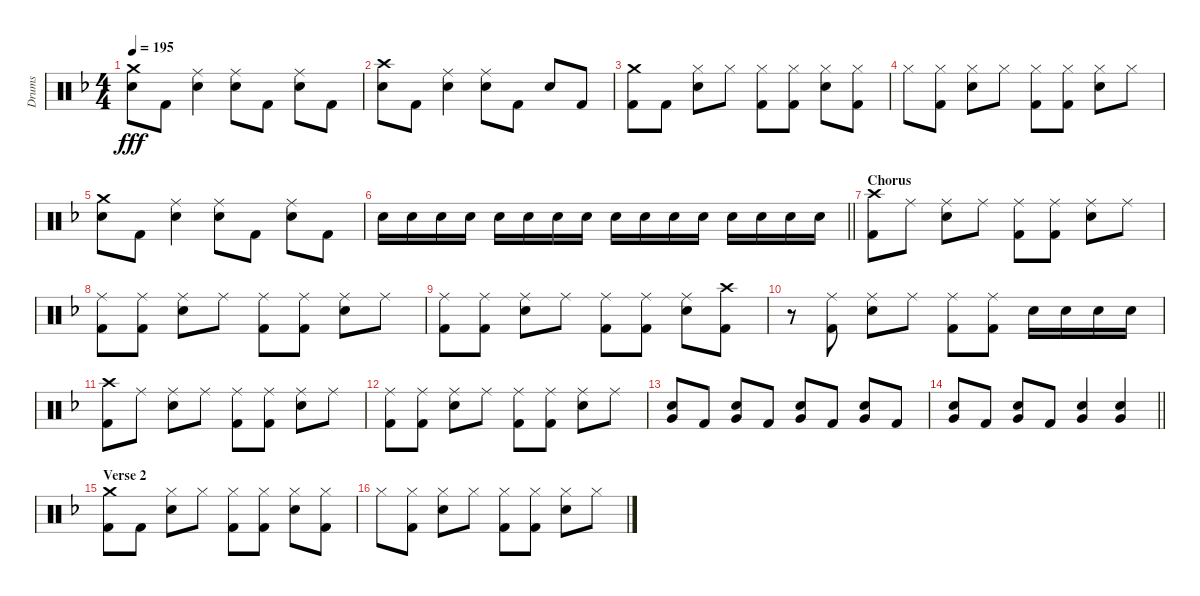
\track ("Drums" "Drums") {instrument percussion}
\staff {score}
\articulation defaults
\ts (4 4)
\tempo 195
\clef neutral
\ks f
("Crash medium (hit)" "Electric Snare (hit)").8{dy fff} "Kick (hit) 2".8 ("Ride (middle)" "Electric Snare (hit)").4 ("Ride (middle)" "Electric Snare (hit)").8 "Kick (hit) 2".8 ("Ride (middle)" "Electric Snare (hit)").8 "Kick (hit) 2".8 |
("Crash high (hit)" "Electric Snare (hit)").8 "Kick (hit) 2".8 ("Ride (middle)" "Electric Snare (hit)").4 ("Ride (middle)" "Electric Snare (hit)").8 "Kick (hit) 2".8 "Electric Snare (hit)".8 "Kick (hit) 2".8 |
("Crash medium (hit)" "Kick (hit) 2").8 "Kick (hit) 2".8 ("Hi-Hat (closed)" "Electric Snare (hit)").8 "Hi-Hat (closed)".8 ("Hi-Hat (closed)" "Kick (hit) 2").8 ("Hi-Hat (closed)" "Kick (hit) 2").8 ("Hi-Hat (closed)" "Electric Snare (hit)").8 ("Hi-Hat (closed)" "Kick (hit) 2").8 |
"Hi-Hat (closed)".8 ("Hi-Hat (closed)" "Kick (hit) 2").8 ("Hi-Hat (closed)" "Electric Snare (hit)").8 "Hi-Hat (closed)".8 ("Hi-Hat (closed)" "Kick (hit) 2").8 ("Hi-Hat (closed)" "Kick (hit) 2").8 ("Hi-Hat (closed)" "Electric Snare (hit)").8 "Hi-Hat (closed)".8 |
("Crash medium (hit)" "Electric Snare (hit)").8 "Kick (hit) 2".8 ("Ride (middle)" "Electric Snare (hit)").4 ("Ride (middle)" "Electric Snare (hit)").8 "Kick (hit) 2".8 ("Ride (middle)" "Electric Snare (hit)").8 "Kick (hit) 2".8 |
\barLineRight lightlight "Electric Snare (hit)".16 "Electric Snare (hit)".16 "Electric Snare (hit)".16 "Electric Snare (hit)".16 "Electric Snare (hit)".16 "Electric Snare (hit)".16 "Electric Snare (hit)".16 "Electric Snare (hit)".16 "Electric Snare (hit)".16 "Electric Snare (hit)".16 "Electric Snare (hit)".16 "Electric Snare (hit)".16 "Electric Snare (hit)".16 "Electric Snare (hit)".16 "Electric Snare (hit)".16 "Electric Snare (hit)".16
|
\section ("" "Chorus")
("Crash high (hit)" "Kick (hit) 2").8 "Ride (middle)".8 ("Ride (middle)" "Electric Snare (hit)").8 "Ride (middle)".8 ("Ride (middle)" "Kick (hit) 2").8 ("Ride (middle)" "Kick (hit) 2").8 ("Ride (middle)" "Electric Snare (hit)").8 "Ride (middle)".8 |
("Ride (middle)" "Kick (hit) 2").8 ("Ride (middle)" "Kick (hit) 2").8 ("Ride (middle)" "Electric Snare (hit)").8 "Ride (middle)".8 ("Ride (middle)" "Kick (hit) 2").8 ("Ride (middle)" "Kick (hit) 2").8 ("Ride (middle)" "Electric Snare (hit)").8 "Ride (middle)".8 |
("Ride (middle)" "Kick (hit) 2").8 ("Ride (middle)" "Kick (hit) 2").8 ("Ride (middle)" "Electric Snare (hit)").8 "Ride (middle)".8 ("Ride (middle)" "Kick (hit) 2").8 ("Ride (middle)" "Kick (hit) 2").8 ("Ride (middle)" "Electric Snare (hit)").8 ("Crash high (hit)" "Kick (hit) 2").8 |
r.8 ("Ride (middle)" "Kick (hit) 2").8 ("Ride (middle)" "Electric Snare (hit)").8 "Ride (middle)".8 ("Ride (middle)" "Kick (hit) 2").8 ("Ride (middle)" "Kick (hit) 2").8 "Electric Snare (hit)".16 "Electric Snare (hit)".16 "Electric Snare (hit)".16 "Electric Snare (hit)".16 |
("Crash high (hit)" "Kick (hit) 2").8 "Ride (middle)".8 ("Ride (middle)" "Electric Snare (hit)").8 "Ride (middle)".8 ("Ride (middle)" "Kick (hit) 2").8 ("Ride (middle)" "Kick (hit) 2").8 ("Ride (middle)" "Electric Snare (hit)").8 "Ride (middle)".8 |
("Ride (middle)" "Kick (hit) 2").8 ("Ride (middle)" "Kick (hit) 2").8 ("Ride (middle)" "Electric Snare (hit)").8 "Ride (middle)".8 ("Ride (middle)" "Kick (hit) 2").8 ("Ride (middle)" "Kick (hit) 2").8 ("Ride (middle)" "Electric Snare (hit)").8 "Ride (middle)".8 |
("Electric Snare (hit)" "Very Low Tom (hit)").8 "Kick (hit) 2".8 ("Electric Snare (hit)" "Very Low Tom (hit)").8 "Kick (hit) 2".8 ("Electric Snare (hit)" "Very Low Tom (hit)").8 "Kick (hit) 2".8 ("Electric Snare (hit)" "Very Low Tom (hit)").8 "Kick (hit) 2".8 |
\barLineRight lightlight
("Electric Snare (hit)" "Very Low Tom (hit)").8 "Kick (hit) 2".8 ("Electric Snare (hit)" "Very Low Tom (hit)").8 "Kick (hit) 2".8 ("Electric Snare (hit)" "Very Low Tom (hit)").4 ("Electric Snare (hit)" "Very Low Tom (hit)").4 |
\section ("" "Verse 2")
("Crash medium (hit)" "Kick (hit) 2").8 "Kick (hit) 2".8 ("Hi-Hat (closed)" "Electric Snare (hit)").8 "Hi-Hat (closed)".8 ("Hi-Hat (closed)" "Kick (hit) 2").8 ("Hi-Hat (closed)" "Kick (hit) 2").8 ("Hi-Hat (closed)" "Electric Snare (hit)").8 ("Hi-Hat (closed)" "Kick (hit) 2").8 |
"Hi-Hat (closed)".8 ("Hi-Hat (closed)" "Kick (hit) 2").8 ("Hi-Hat (closed)" "Electric Snare (hit)").8 "Hi-Hat (closed)".8 ("Hi-Hat (closed)" "Kick (hit) 2").8 ("Hi-Hat (closed)" "Kick (hit) 2").8 ("Hi-Hat (closed)" "Electric Snare (hit)").8 "Hi-Hat (closed)".8
